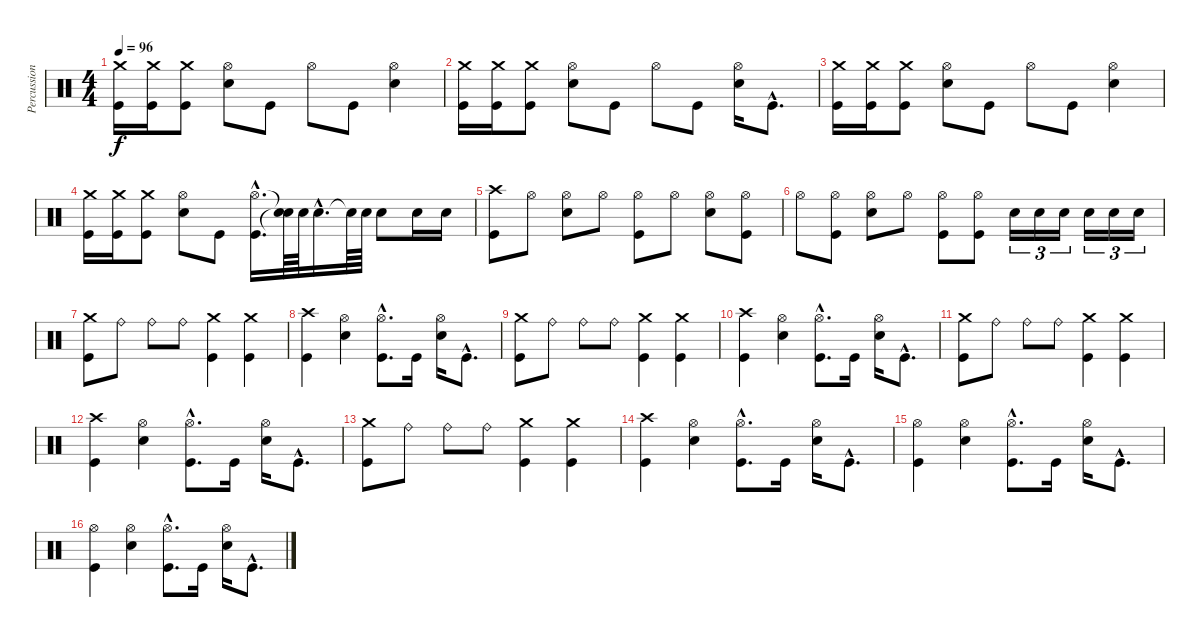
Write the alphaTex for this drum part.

\track ("Percussion" "Percussion") {instrument percussion}
\staff {score}
\articulation defaults
\ts (4 4)
\tempo 96
\clef neutral
\ks c
("Kick (hit)" "Crash medium (hit)").16{dy f} ("Kick (hit)" "Crash medium (hit)").16 ("Kick (hit)" "Crash medium (hit)").8 ("Electric Snare (hit)" "Hi-Hat (open)").8 "Kick (hit)".8 "Hi-Hat (open)".8 "Kick (hit)".8 ("Electric Snare (hit)" "Hi-Hat (open)").4 |
("Kick (hit)" "Crash medium (hit)").16 ("Kick (hit)" "Crash medium (hit)").16 ("Kick (hit)" "Crash medium (hit)").8 ("Electric Snare (hit)" "Hi-Hat (open)").8 "Kick (hit)".8 "Hi-Hat (open)".8 "Kick (hit)".8 ("Electric Snare (hit)" "Hi-Hat (open)").16 "Kick (hit)"{hac}.8{d} |
("Kick (hit)" "Crash medium (hit)").16 ("Kick (hit)" "Crash medium (hit)").16 ("Kick (hit)" "Crash medium (hit)").8 ("Electric Snare (hit)" "Hi-Hat (open)").8 "Kick (hit)".8 "Hi-Hat (open)".8 "Kick (hit)".8 ("Electric Snare (hit)" "Hi-Hat (open)").4 |
("Crash medium (hit)" "Kick (hit)").16 ("Crash medium (hit)" "Kick (hit)").16 ("Crash medium (hit)" "Kick (hit)").8 ("Hi-Hat (open)" "Electric Snare (hit)").8 "Kick (hit)".8 ("Hi-Hat (open)"{hac} "Kick (hit)"{hac}).16{d} ("Snare (hit)"{t} "Snare (hit)"{t}).64 "Electric Snare (hit)".64 "Electric Snare (hit)"{hac}.16{d} "Snare (hit)"{t}.64 "Electric Snare (hit)".64 "Electric Snare (hit)".8 "Electric Snare (hit)".16 "Electric Snare (hit)".16 |
("Kick (hit)" "Crash high (hit)").8 "Hi-Hat (open)".8 ("Electric Snare (hit)" "Hi-Hat (open)").8 "Hi-Hat (open)".8 ("Kick (hit)" "Hi-Hat (open)").8 "Hi-Hat (open)".8 ("Electric Snare (hit)" "Hi-Hat (open)").8 ("Kick (hit)" "Hi-Hat (open)").8 |
"Hi-Hat (open)".8 ("Kick (hit)" "Hi-Hat (open)").8 ("Electric Snare (hit)" "Hi-Hat (open)").8 "Hi-Hat (open)".8 ("Kick (hit)" "Hi-Hat (open)").8 ("Kick (hit)" "Hi-Hat (open)").8 "Electric Snare (hit)".16{tu (3 2)} "Electric Snare (hit)".16{tu (3 2)} "Electric Snare (hit)".16{tu (3 2)} "Electric Snare (hit)".16{tu (3 2)} "Electric Snare (hit)".16{tu (3 2)} "Electric Snare (hit)".16{tu (3 2)} |
("Kick (hit)" "Crash medium (hit)").8 "Ride (bell)".8 "Ride (bell)".8 "Ride (bell)".8 ("Crash medium (hit)" "Kick (hit)").4 ("Crash medium (hit)" "Kick (hit)").4 |
("Kick (hit)" "Crash high (hit)").4 ("Electric Snare (hit)" "Hi-Hat (open)").4 ("Kick (hit)"{hac} "Hi-Hat (open)"{hac}).8{d} "Kick (hit)".16 ("Electric Snare (hit)" "Hi-Hat (open)").16 "Kick (hit)"{hac}.8{d} |
("Kick (hit)" "Crash medium (hit)").8 "Ride (bell)".8 "Ride (bell)".8 "Ride (bell)".8 ("Crash medium (hit)" "Kick (hit)").4 ("Crash medium (hit)" "Kick (hit)").4 |
("Kick (hit)" "Crash high (hit)").4 ("Electric Snare (hit)" "Hi-Hat (open)").4 ("Kick (hit)"{hac} "Hi-Hat (open)"{hac}).8{d} "Kick (hit)".16 ("Electric Snare (hit)" "Hi-Hat (open)").16 "Kick (hit)"{hac}.8{d} |
("Kick (hit)" "Crash medium (hit)").8 "Ride (bell)".8 "Ride (bell)".8 "Ride (bell)".8 ("Crash medium (hit)" "Kick (hit)").4 ("Crash medium (hit)" "Kick (hit)").4 |
("Kick (hit)" "Crash high (hit)").4 ("Electric Snare (hit)" "Hi-Hat (open)").4 ("Kick (hit)"{hac} "Hi-Hat (open)"{hac}).8{d} "Kick (hit)".16 ("Electric Snare (hit)" "Hi-Hat (open)").16 "Kick (hit)"{hac}.8{d} |
("Kick (hit)" "Crash medium (hit)").8 "Ride (bell)".8 "Ride (bell)".8 "Ride (bell)".8 ("Crash medium (hit)" "Kick (hit)").4 ("Crash medium (hit)" "Kick (hit)").4 |
("Kick (hit)" "Crash high (hit)").4 ("Electric Snare (hit)" "Hi-Hat (open)").4 ("Kick (hit)"{hac} "Hi-Hat (open)"{hac}).8{d} "Kick (hit)".16 ("Electric Snare (hit)" "Hi-Hat (open)").16 "Kick (hit)"{hac}.8{d} |
("Kick (hit)" "Hi-Hat (open)").4 ("Electric Snare (hit)" "Hi-Hat (open)").4 ("Kick (hit)"{hac} "Hi-Hat (open)"{hac}).8{d} "Kick (hit)".16 ("Electric Snare (hit)" "Hi-Hat (open)").16 "Kick (hit)"{hac}.8{d} |
("Kick (hit)" "Hi-Hat (open)").4 ("Electric Snare (hit)" "Hi-Hat (open)").4 ("Kick (hit)"{hac} "Hi-Hat (open)"{hac}).8{d} "Kick (hit)".16 ("Electric Snare (hit)" "Hi-Hat (open)").16 "Kick (hit)"{hac}.8{d}
